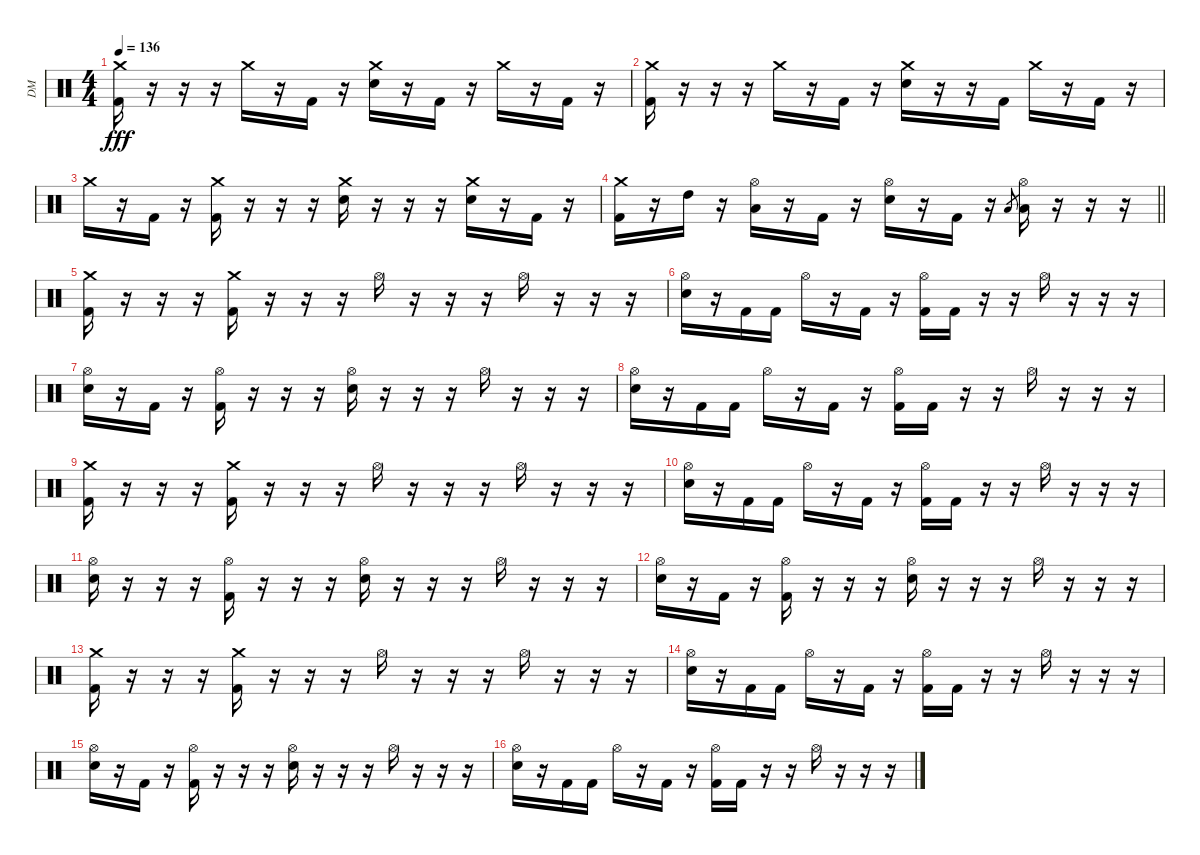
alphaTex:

\track ("DM" "DM") {instrument percussion}
\staff {score}
\articulation defaults
\ts (4 4)
\tempo 136
\clef neutral
\ks c
("Crash medium (hit)" "Kick (hit) 2").16{dy fff} r.16 r.16 r.16 "Crash medium (hit)".16 r.16 "Kick (hit) 2".16 r.16 ("Crash medium (hit)" "Electric Snare (hit)").16 r.16 "Kick (hit) 2".16 r.16 "Crash medium (hit)".16 r.16 "Kick (hit) 2".16 r.16 |
("Crash medium (hit)" "Kick (hit) 2").16 r.16 r.16 r.16 "Crash medium (hit)".16 r.16 "Kick (hit) 2".16 r.16 ("Crash medium (hit)" "Electric Snare (hit)").16 r.16 r.16 "Kick (hit) 2".16 "Crash medium (hit)".16 r.16 "Kick (hit) 2".16 r.16 |
"Crash medium (hit)".16 r.16 "Kick (hit) 2".16 r.16 ("Crash medium (hit)" "Kick (hit) 2").16 r.16 r.16 r.16 ("Crash medium (hit)" "Electric Snare (hit)").16 r.16 r.16 r.16 ("Crash medium (hit)" "Electric Snare (hit)").16 r.16 "Kick (hit) 2".16 r.16 |
\barLineRight lightlight
("Crash medium (hit)" "Kick (hit) 2").16 r.16 "High Tom (hit)".16 r.16 ("Hi-Hat (open)" "Low Tom (hit)").16 r.16 "Kick (hit) 2".16 r.16 ("Hi-Hat (open)" "Electric Snare (hit)").16 r.16 "Kick (hit) 2".16 r.16 "Low Tom (hit)".8{gr} ("Hi-Hat (open)" "Low Tom (hit)").16 r.16 r.16 r.16 |
\section ("" "")
("Crash medium (hit)" "Kick (hit) 2").16 r.16 r.16 r.16 ("Crash medium (hit)" "Kick (hit) 2").16 r.16 r.16 r.16 "Hi-Hat (open)".16 r.16 r.16 r.16 "Hi-Hat (open)".16 r.16 r.16 r.16 |
("Hi-Hat (open)" "Electric Snare (hit)").16 r.16 "Kick (hit) 2".16 "Kick (hit) 2".16 "Hi-Hat (open)".16 r.16 "Kick (hit) 2".16 r.16 ("Hi-Hat (open)" "Kick (hit) 2").16 "Kick (hit) 2".16 r.16 r.16 "Hi-Hat (open)".16 r.16 r.16 r.16 |
("Hi-Hat (open)" "Electric Snare (hit)").16 r.16 "Kick (hit) 2".16 r.16 ("Hi-Hat (open)" "Kick (hit) 2").16 r.16 r.16 r.16 ("Hi-Hat (open)" "Electric Snare (hit)").16 r.16 r.16 r.16 "Hi-Hat (open)".16 r.16 r.16 r.16 |
("Hi-Hat (open)" "Electric Snare (hit)").16 r.16 "Kick (hit) 2".16 "Kick (hit) 2".16 "Hi-Hat (open)".16 r.16 "Kick (hit) 2".16 r.16 ("Hi-Hat (open)" "Kick (hit) 2").16 "Kick (hit) 2".16 r.16 r.16 "Hi-Hat (open)".16 r.16 r.16 r.16 |
("Crash medium (hit)" "Kick (hit) 2").16 r.16 r.16 r.16 ("Crash medium (hit)" "Kick (hit) 2").16 r.16 r.16 r.16 "Hi-Hat (open)".16 r.16 r.16 r.16 "Hi-Hat (open)".16 r.16 r.16 r.16 |
("Hi-Hat (open)" "Electric Snare (hit)").16 r.16 "Kick (hit) 2".16 "Kick (hit) 2".16 "Hi-Hat (open)".16 r.16 "Kick (hit) 2".16 r.16 ("Hi-Hat (open)" "Kick (hit) 2").16 "Kick (hit) 2".16 r.16 r.16 "Hi-Hat (open)".16 r.16 r.16 r.16 |
("Hi-Hat (open)" "Electric Snare (hit)").16 r.16 r.16 r.16 ("Hi-Hat (open)" "Kick (hit) 2").16 r.16 r.16 r.16 ("Hi-Hat (open)" "Electric Snare (hit)").16 r.16 r.16 r.16 "Hi-Hat (open)".16 r.16 r.16 r.16 |
("Hi-Hat (open)" "Electric Snare (hit)").16 r.16 "Kick (hit) 2".16 r.16 ("Hi-Hat (open)" "Kick (hit) 2").16 r.16 r.16 r.16 ("Hi-Hat (open)" "Electric Snare (hit)").16 r.16 r.16 r.16 "Hi-Hat (open)".16 r.16 r.16 r.16 |
("Crash medium (hit)" "Kick (hit) 2").16 r.16 r.16 r.16 ("Crash medium (hit)" "Kick (hit) 2").16 r.16 r.16 r.16 "Hi-Hat (open)".16 r.16 r.16 r.16 "Hi-Hat (open)".16 r.16 r.16 r.16 |
("Hi-Hat (open)" "Electric Snare (hit)").16 r.16 "Kick (hit) 2".16 "Kick (hit) 2".16 "Hi-Hat (open)".16 r.16 "Kick (hit) 2".16 r.16 ("Hi-Hat (open)" "Kick (hit) 2").16 "Kick (hit) 2".16 r.16 r.16 "Hi-Hat (open)".16 r.16 r.16 r.16 |
("Hi-Hat (open)" "Electric Snare (hit)").16 r.16 "Kick (hit) 2".16 r.16 ("Hi-Hat (open)" "Kick (hit) 2").16 r.16 r.16 r.16 ("Hi-Hat (open)" "Electric Snare (hit)").16 r.16 r.16 r.16 "Hi-Hat (open)".16 r.16 r.16 r.16 |
("Hi-Hat (open)" "Electric Snare (hit)").16 r.16 "Kick (hit) 2".16 "Kick (hit) 2".16 "Hi-Hat (open)".16 r.16 "Kick (hit) 2".16 r.16 ("Hi-Hat (open)" "Kick (hit) 2").16 "Kick (hit) 2".16 r.16 r.16 "Hi-Hat (open)".16 r.16 r.16 r.16
